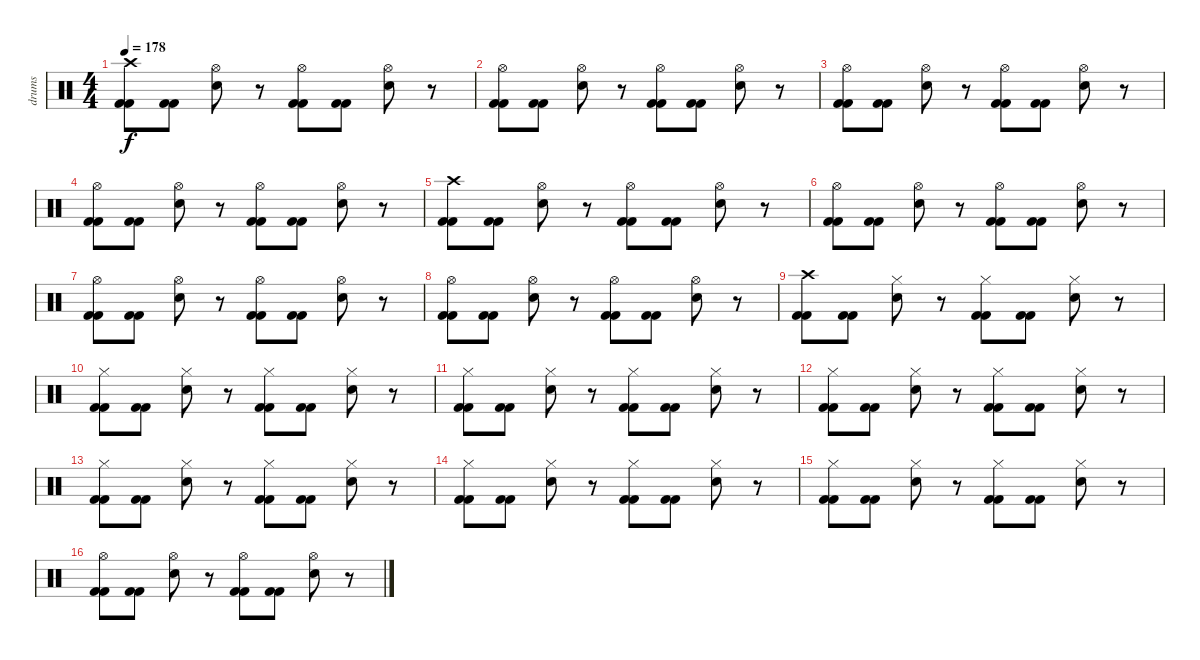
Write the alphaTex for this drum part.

\track ("drums" "drums") {instrument percussion}
\staff {score}
\articulation defaults
\ts (4 4)
\tempo 178
\clef neutral
\ks c
("Crash high (hit)" "Kick (hit) 2" "Kick (hit) 2").8{dy f} ("Kick (hit) 2" "Kick (hit) 2").8 ("Hi-Hat (open)" "Electric Snare (hit)").8 r.8 ("Hi-Hat (open)" "Kick (hit) 2" "Kick (hit) 2").8 ("Kick (hit) 2" "Kick (hit) 2").8 ("Hi-Hat (open)" "Electric Snare (hit)").8 r.8 |
("Hi-Hat (open)" "Kick (hit) 2" "Kick (hit) 2").8 ("Kick (hit) 2" "Kick (hit) 2").8 ("Hi-Hat (open)" "Electric Snare (hit)").8 r.8 ("Hi-Hat (open)" "Kick (hit) 2" "Kick (hit) 2").8 ("Kick (hit) 2" "Kick (hit) 2").8 ("Hi-Hat (open)" "Electric Snare (hit)").8 r.8 |
("Hi-Hat (open)" "Kick (hit) 2" "Kick (hit) 2").8 ("Kick (hit) 2" "Kick (hit) 2").8 ("Hi-Hat (open)" "Electric Snare (hit)").8 r.8 ("Hi-Hat (open)" "Kick (hit) 2" "Kick (hit) 2").8 ("Kick (hit) 2" "Kick (hit) 2").8 ("Hi-Hat (open)" "Electric Snare (hit)").8 r.8 |
("Hi-Hat (open)" "Kick (hit) 2" "Kick (hit) 2").8 ("Kick (hit) 2" "Kick (hit) 2").8 ("Hi-Hat (open)" "Electric Snare (hit)").8 r.8 ("Hi-Hat (open)" "Kick (hit) 2" "Kick (hit) 2").8 ("Kick (hit) 2" "Kick (hit) 2").8 ("Hi-Hat (open)" "Electric Snare (hit)").8 r.8 |
("Crash high (hit)" "Kick (hit) 2" "Kick (hit) 2").8 ("Kick (hit) 2" "Kick (hit) 2").8 ("Hi-Hat (open)" "Electric Snare (hit)").8 r.8 ("Hi-Hat (open)" "Kick (hit) 2" "Kick (hit) 2").8 ("Kick (hit) 2" "Kick (hit) 2").8 ("Hi-Hat (open)" "Electric Snare (hit)").8 r.8 |
("Hi-Hat (open)" "Kick (hit) 2" "Kick (hit) 2").8 ("Kick (hit) 2" "Kick (hit) 2").8 ("Hi-Hat (open)" "Electric Snare (hit)").8 r.8 ("Hi-Hat (open)" "Kick (hit) 2" "Kick (hit) 2").8 ("Kick (hit) 2" "Kick (hit) 2").8 ("Hi-Hat (open)" "Electric Snare (hit)").8 r.8 |
("Hi-Hat (open)" "Kick (hit) 2" "Kick (hit) 2").8 ("Kick (hit) 2" "Kick (hit) 2").8 ("Hi-Hat (open)" "Electric Snare (hit)").8 r.8 ("Hi-Hat (open)" "Kick (hit) 2" "Kick (hit) 2").8 ("Kick (hit) 2" "Kick (hit) 2").8 ("Hi-Hat (open)" "Electric Snare (hit)").8 r.8 |
("Hi-Hat (open)" "Kick (hit) 2" "Kick (hit) 2").8 ("Kick (hit) 2" "Kick (hit) 2").8 ("Hi-Hat (open)" "Electric Snare (hit)").8 r.8 ("Hi-Hat (open)" "Kick (hit) 2" "Kick (hit) 2").8 ("Kick (hit) 2" "Kick (hit) 2").8 ("Hi-Hat (open)" "Electric Snare (hit)").8 r.8 |
("Crash high (hit)" "Kick (hit) 2" "Kick (hit) 2").8 ("Kick (hit) 2" "Kick (hit) 2").8 ("Hi-Hat (closed)" "Electric Snare (hit)").8 r.8 ("Hi-Hat (closed)" "Kick (hit) 2" "Kick (hit) 2").8 ("Kick (hit) 2" "Kick (hit) 2").8 ("Hi-Hat (closed)" "Electric Snare (hit)").8 r.8 |
("Hi-Hat (closed)" "Kick (hit) 2" "Kick (hit) 2").8 ("Kick (hit) 2" "Kick (hit) 2").8 ("Hi-Hat (closed)" "Electric Snare (hit)").8 r.8 ("Hi-Hat (closed)" "Kick (hit) 2" "Kick (hit) 2").8 ("Kick (hit) 2" "Kick (hit) 2").8 ("Hi-Hat (closed)" "Electric Snare (hit)").8 r.8 |
("Hi-Hat (closed)" "Kick (hit) 2" "Kick (hit) 2").8 ("Kick (hit) 2" "Kick (hit) 2").8 ("Hi-Hat (closed)" "Electric Snare (hit)").8 r.8 ("Hi-Hat (closed)" "Kick (hit) 2" "Kick (hit) 2").8 ("Kick (hit) 2" "Kick (hit) 2").8 ("Hi-Hat (closed)" "Electric Snare (hit)").8 r.8 |
("Hi-Hat (closed)" "Kick (hit) 2" "Kick (hit) 2").8 ("Kick (hit) 2" "Kick (hit) 2").8 ("Hi-Hat (closed)" "Electric Snare (hit)").8 r.8 ("Hi-Hat (closed)" "Kick (hit) 2" "Kick (hit) 2").8 ("Kick (hit) 2" "Kick (hit) 2").8 ("Hi-Hat (closed)" "Electric Snare (hit)").8 r.8 |
("Hi-Hat (closed)" "Kick (hit) 2" "Kick (hit) 2").8 ("Kick (hit) 2" "Kick (hit) 2").8 ("Hi-Hat (closed)" "Electric Snare (hit)").8 r.8 ("Hi-Hat (closed)" "Kick (hit) 2" "Kick (hit) 2").8 ("Kick (hit) 2" "Kick (hit) 2").8 ("Hi-Hat (closed)" "Electric Snare (hit)").8 r.8 |
("Hi-Hat (closed)" "Kick (hit) 2" "Kick (hit) 2").8 ("Kick (hit) 2" "Kick (hit) 2").8 ("Hi-Hat (closed)" "Electric Snare (hit)").8 r.8 ("Hi-Hat (closed)" "Kick (hit) 2" "Kick (hit) 2").8 ("Kick (hit) 2" "Kick (hit) 2").8 ("Hi-Hat (closed)" "Electric Snare (hit)").8 r.8 |
("Hi-Hat (closed)" "Kick (hit) 2" "Kick (hit) 2").8 ("Kick (hit) 2" "Kick (hit) 2").8 ("Hi-Hat (closed)" "Electric Snare (hit)").8 r.8 ("Hi-Hat (closed)" "Kick (hit) 2" "Kick (hit) 2").8 ("Kick (hit) 2" "Kick (hit) 2").8 ("Hi-Hat (closed)" "Electric Snare (hit)").8 r.8 |
("Hi-Hat (open)" "Kick (hit) 2" "Kick (hit) 2").8 ("Kick (hit) 2" "Kick (hit) 2").8 ("Hi-Hat (open)" "Electric Snare (hit)").8 r.8 ("Hi-Hat (open)" "Kick (hit) 2" "Kick (hit) 2").8 ("Kick (hit) 2" "Kick (hit) 2").8 ("Hi-Hat (open)" "Electric Snare (hit)").8 r.8
